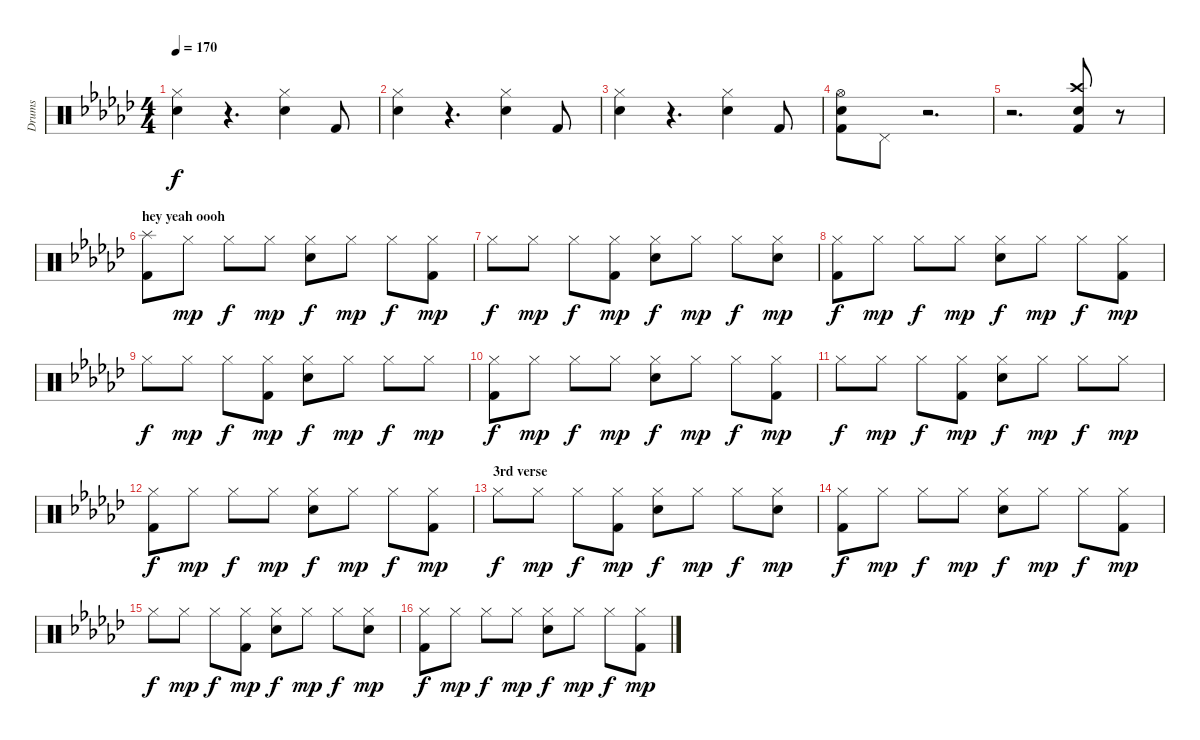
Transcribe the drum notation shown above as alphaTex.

\track ("Drums" "Drums") {instrument percussion}
\staff {score}
\articulation defaults
\ts (4 4)
\tempo 170
\clef neutral
\ks ebminor
("Hi-Hat (closed)" "Snare (hit) 2").4{dy f} r.4{d} ("Hi-Hat (closed)" "Snare (hit) 2").4 "Kick (hit) 2".8 |
("Hi-Hat (closed)" "Snare (hit) 2").4 r.4{d} ("Hi-Hat (closed)" "Snare (hit) 2").4 "Kick (hit) 2".8 |
("Hi-Hat (closed)" "Snare (hit) 2").4 r.4{d} ("Hi-Hat (closed)" "Snare (hit) 2").4 "Kick (hit) 2".8 |
("Hi-Hat (open)" "Snare (hit) 2" "Kick (hit) 2").8 "Pedal Hi-Hat (hit)".8 r.2{d} |
r.2{d} ("Crash high (hit)" "Electric Snare (hit)" "Kick (hit) 2").8 r.8 |
\section ("" "hey yeah oooh")
("Splash (hit)" "Kick (hit) 2").8 "Hi-Hat (closed)".8{dy mp} "Hi-Hat (closed)".8{dy f} "Hi-Hat (closed)".8{dy mp} ("Hi-Hat (closed)" "Snare (hit) 2").8{dy f} "Hi-Hat (closed)".8{dy mp} "Hi-Hat (closed)".8{dy f} ("Hi-Hat (closed)" "Kick (hit) 2").8{dy mp} |
"Hi-Hat (closed)".8{dy f} "Hi-Hat (closed)".8{dy mp} "Hi-Hat (closed)".8{dy f} ("Hi-Hat (closed)" "Kick (hit) 2").8{dy mp} ("Hi-Hat (closed)" "Snare (hit) 2").8{dy f} "Hi-Hat (closed)".8{dy mp} "Hi-Hat (closed)".8{dy f} ("Hi-Hat (closed)" "Snare (hit) 2").8{dy mp} |
("Hi-Hat (closed)" "Kick (hit) 2").8{dy f} "Hi-Hat (closed)".8{dy mp} "Hi-Hat (closed)".8{dy f} "Hi-Hat (closed)".8{dy mp} ("Hi-Hat (closed)" "Snare (hit) 2").8{dy f} "Hi-Hat (closed)".8{dy mp} "Hi-Hat (closed)".8{dy f} ("Hi-Hat (closed)" "Kick (hit) 2").8{dy mp} |
"Hi-Hat (closed)".8{dy f} "Hi-Hat (closed)".8{dy mp} "Hi-Hat (closed)".8{dy f} ("Hi-Hat (closed)" "Kick (hit) 2").8{dy mp} ("Hi-Hat (closed)" "Snare (hit) 2").8{dy f} "Hi-Hat (closed)".8{dy mp} "Hi-Hat (closed)".8{dy f} "Hi-Hat (closed)".8{dy mp} |
("Hi-Hat (closed)" "Kick (hit) 2").8{dy f} "Hi-Hat (closed)".8{dy mp} "Hi-Hat (closed)".8{dy f} "Hi-Hat (closed)".8{dy mp} ("Hi-Hat (closed)" "Snare (hit) 2").8{dy f} "Hi-Hat (closed)".8{dy mp} "Hi-Hat (closed)".8{dy f} ("Hi-Hat (closed)" "Kick (hit) 2").8{dy mp} |
"Hi-Hat (closed)".8{dy f} "Hi-Hat (closed)".8{dy mp} "Hi-Hat (closed)".8{dy f} ("Hi-Hat (closed)" "Kick (hit) 2").8{dy mp} ("Hi-Hat (closed)" "Snare (hit) 2").8{dy f} "Hi-Hat (closed)".8{dy mp} "Hi-Hat (closed)".8{dy f} "Hi-Hat (closed)".8{dy mp} |
("Hi-Hat (closed)" "Kick (hit) 2").8{dy f} "Hi-Hat (closed)".8{dy mp} "Hi-Hat (closed)".8{dy f} "Hi-Hat (closed)".8{dy mp} ("Hi-Hat (closed)" "Snare (hit) 2").8{dy f} "Hi-Hat (closed)".8{dy mp} "Hi-Hat (closed)".8{dy f} ("Hi-Hat (closed)" "Kick (hit) 2").8{dy mp} |
\section ("" "3rd verse")
"Hi-Hat (closed)".8{dy f} "Hi-Hat (closed)".8{dy mp} "Hi-Hat (closed)".8{dy f} ("Hi-Hat (closed)" "Kick (hit) 2").8{dy mp} ("Hi-Hat (closed)" "Snare (hit) 2").8{dy f} "Hi-Hat (closed)".8{dy mp} "Hi-Hat (closed)".8{dy f} ("Hi-Hat (closed)" "Snare (hit) 2").8{dy mp} |
("Hi-Hat (closed)" "Kick (hit) 2").8{dy f} "Hi-Hat (closed)".8{dy mp} "Hi-Hat (closed)".8{dy f} "Hi-Hat (closed)".8{dy mp} ("Hi-Hat (closed)" "Snare (hit) 2").8{dy f} "Hi-Hat (closed)".8{dy mp} "Hi-Hat (closed)".8{dy f} ("Hi-Hat (closed)" "Kick (hit) 2").8{dy mp} |
"Hi-Hat (closed)".8{dy f} "Hi-Hat (closed)".8{dy mp} "Hi-Hat (closed)".8{dy f} ("Hi-Hat (closed)" "Kick (hit) 2").8{dy mp} ("Hi-Hat (closed)" "Snare (hit) 2").8{dy f} "Hi-Hat (closed)".8{dy mp} "Hi-Hat (closed)".8{dy f} ("Hi-Hat (closed)" "Snare (hit) 2").8{dy mp} |
("Hi-Hat (closed)" "Kick (hit) 2").8{dy f} "Hi-Hat (closed)".8{dy mp} "Hi-Hat (closed)".8{dy f} "Hi-Hat (closed)".8{dy mp} ("Hi-Hat (closed)" "Snare (hit) 2").8{dy f} "Hi-Hat (closed)".8{dy mp} "Hi-Hat (closed)".8{dy f} ("Hi-Hat (closed)" "Kick (hit) 2").8{dy mp}
